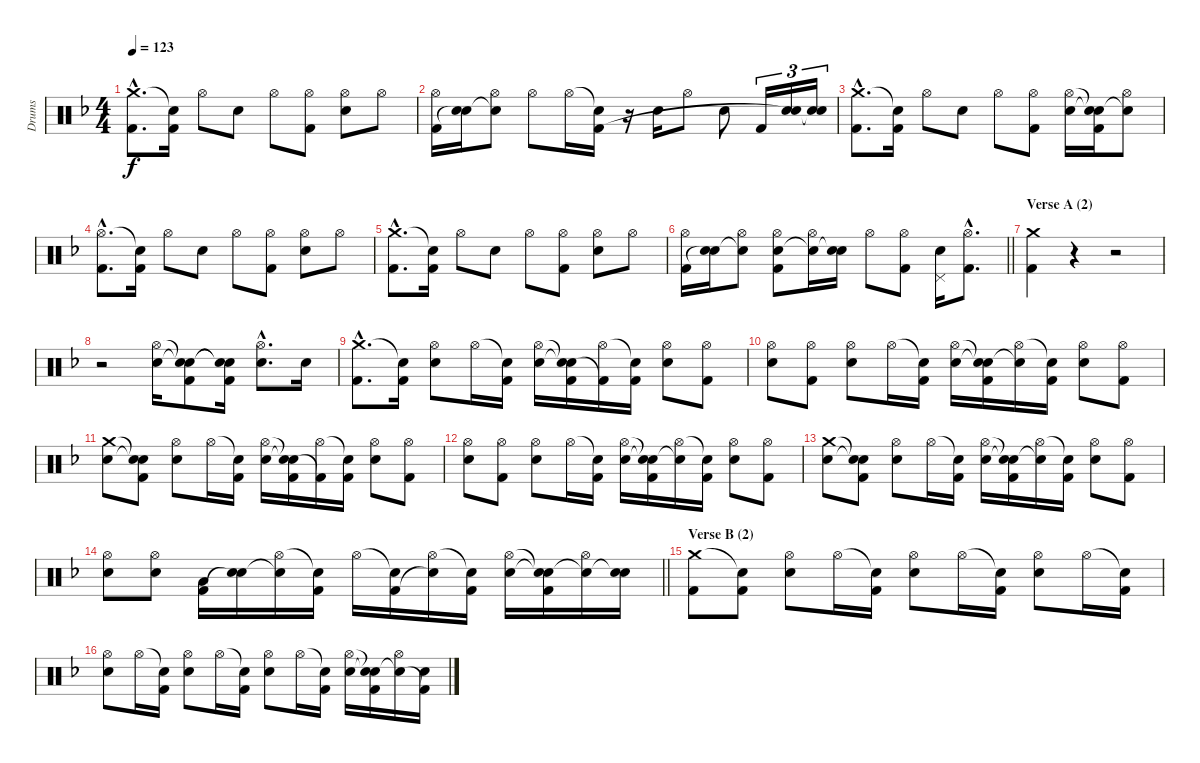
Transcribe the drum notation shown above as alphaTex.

\track ("Drums" "Drums") {instrument percussion}
\staff {score}
\articulation defaults
\ts (4 4)
\tempo 123
\clef neutral
\ks dminor
("Crash medium (hit)"{hac} "Kick (hit) 2"{hac}).8{d dy f} ("Snare (hit)"{t} "Kick (hit) 2").16 "Hi-Hat (open)".8 "Electric Snare (hit)".8 "Hi-Hat (open)".8 ("Hi-Hat (open)" "Kick (hit) 2").8 ("Hi-Hat (open)" "Electric Snare (hit)").8 "Hi-Hat (open)".8 |
("Hi-Hat (open)" "Kick (hit) 2").16 ("Electric Snare (hit)" "Snare (hit)"{t}).16 ("Hi-Hat (open)" "Snare (hit)"{t}).8 "Hi-Hat (open)".8 "Hi-Hat (open)".16 ("Snare (hit)"{t} "Kick (hit) 2").16 r.16 "Electric Snare (hit)".16 "Hi-Hat (open)".8 "Electric Snare (hit)".8 "Kick (hit) 2".16{tu (3 2)} ("Electric Snare (hit)" "Snare (hit)"{t}).16{tu (3 2)} ("Electric Snare (hit)" "Snare (hit)"{t}).16{tu (3 2)} |
("Crash medium (hit)"{hac} "Kick (hit) 2"{hac}).8{d} ("Snare (hit)"{t} "Kick (hit) 2").16 "Hi-Hat (open)".8 "Electric Snare (hit)".8 "Hi-Hat (open)".8 ("Hi-Hat (open)" "Kick (hit) 2").8 ("Hi-Hat (open)" "Electric Snare (hit)").16 ("Snare (hit)"{t} "Snare (hit)"{t} "Kick (hit) 2").16 ("Hi-Hat (open)" "Snare (hit)"{t}).8 |
("Hi-Hat (open)"{hac} "Kick (hit) 2"{hac}).8{d} ("Snare (hit)"{t} "Kick (hit) 2").16 "Hi-Hat (open)".8 "Electric Snare (hit)".8 "Hi-Hat (open)".8 ("Hi-Hat (open)" "Kick (hit) 2").8 ("Hi-Hat (open)" "Electric Snare (hit)").8 "Hi-Hat (open)".8 |
("Crash medium (hit)"{hac} "Kick (hit) 2"{hac}).8{d} ("Snare (hit)"{t} "Kick (hit) 2").16 "Hi-Hat (open)".8 "Electric Snare (hit)".8 "Hi-Hat (open)".8 ("Hi-Hat (open)" "Kick (hit) 2").8 ("Hi-Hat (open)" "Electric Snare (hit)").8 "Hi-Hat (open)".8 |
\barLineRight lightlight
("Hi-Hat (open)" "Kick (hit) 2").16 ("Electric Snare (hit)" "Snare (hit)"{t}).16 ("Hi-Hat (open)" "Snare (hit)"{t}).8 ("Hi-Hat (open)" "Electric Snare (hit)" "Kick (hit) 2").8 ("Hi-Hat (open)" "Snare (hit)"{t}).16 ("Electric Snare (hit)" "Snare (hit)"{t}).16 "Hi-Hat (open)".8 ("Hi-Hat (open)" "Kick (hit) 2").8 ("Pedal Hi-Hat (hit)" "Electric Snare (hit)").16 ("Hi-Hat (open)"{hac} "Kick (hit) 2"{hac}).8{d} |
\section ("" "Verse A (2)")
("Crash medium (hit)" "Kick (hit) 2").4 r.4 r.2 |
r.2 ("Hi-Hat (open)" "Electric Snare (hit)").16 ("Snare (hit)"{t} "Snare (hit)"{t} "Kick (hit) 2").8 ("Snare (hit)"{t} "Snare (hit)"{t} "Kick (hit) 2").16 ("Hi-Hat (open)"{hac} "Electric Snare (hit)"{hac}).8{d} "Electric Snare (hit)".16 |
("Crash medium (hit)"{hac} "Kick (hit) 2"{hac}).8{d} ("Snare (hit)"{t} "Kick (hit) 2").16 ("Hi-Hat (open)" "Electric Snare (hit)").8 "Hi-Hat (open)".16 ("Snare (hit)"{t} "Kick (hit) 2").16 ("Hi-Hat (open)" "Electric Snare (hit)").16 ("Snare (hit)"{t} "Snare (hit)"{t} "Kick (hit) 2").16 ("Hi-Hat (open)" "Kick (hit) 2"{t}).16 ("Snare (hit)"{t} "Kick (hit) 2").16 ("Hi-Hat (open)" "Electric Snare (hit)").8 ("Hi-Hat (open)" "Kick (hit) 2").8 |
("Hi-Hat (open)" "Electric Snare (hit)").8 ("Hi-Hat (open)" "Kick (hit) 2").8 ("Hi-Hat (open)" "Electric Snare (hit)").8 "Hi-Hat (open)".16 ("Snare (hit)"{t} "Kick (hit) 2").16 ("Hi-Hat (open)" "Electric Snare (hit)").16 ("Snare (hit)"{t} "Snare (hit)"{t} "Kick (hit) 2").16 ("Hi-Hat (open)" "Snare (hit)"{t}).16 ("Snare (hit)"{t} "Kick (hit) 2").16 ("Hi-Hat (open)" "Electric Snare (hit)").8 ("Hi-Hat (open)" "Kick (hit) 2").8 |
("Crash medium (hit)" "Electric Snare (hit)").8 ("Snare (hit)"{t} "Snare (hit)"{t} "Kick (hit) 2").8 ("Hi-Hat (open)" "Electric Snare (hit)").8 "Hi-Hat (open)".16 ("Snare (hit)"{t} "Kick (hit) 2").16 ("Hi-Hat (open)" "Electric Snare (hit)").16 ("Snare (hit)"{t} "Snare (hit)"{t} "Kick (hit) 2").16 ("Hi-Hat (open)" "Kick (hit) 2"{t}).16 ("Snare (hit)"{t} "Kick (hit) 2").16 ("Hi-Hat (open)" "Electric Snare (hit)").8 ("Hi-Hat (open)" "Kick (hit) 2").8 |
("Hi-Hat (open)" "Electric Snare (hit)").8 ("Hi-Hat (open)" "Kick (hit) 2").8 ("Hi-Hat (open)" "Electric Snare (hit)").8 "Hi-Hat (open)".16 ("Snare (hit)"{t} "Kick (hit) 2").16 ("Hi-Hat (open)" "Electric Snare (hit)").16 ("Snare (hit)"{t} "Snare (hit)"{t} "Kick (hit) 2").16 ("Hi-Hat (open)" "Snare (hit)"{t}).16 ("Snare (hit)"{t} "Kick (hit) 2").16 ("Hi-Hat (open)" "Electric Snare (hit)").8 ("Hi-Hat (open)" "Kick (hit) 2").8 |
("Crash medium (hit)" "Electric Snare (hit)").8 ("Snare (hit)"{t} "Snare (hit)"{t} "Kick (hit) 2").8 ("Hi-Hat (open)" "Electric Snare (hit)").8 "Hi-Hat (open)".16 ("Snare (hit)"{t} "Kick (hit) 2").16 ("Hi-Hat (open)" "Electric Snare (hit)").16 ("Snare (hit)"{t} "Snare (hit)"{t} "Kick (hit) 2").16 ("Hi-Hat (open)" "Snare (hit)"{t}).16 ("Snare (hit)"{t} "Kick (hit) 2").16 ("Hi-Hat (open)" "Electric Snare (hit)").8 ("Hi-Hat (open)" "Kick (hit) 2").8 |
\barLineRight lightlight
("Hi-Hat (open)" "Electric Snare (hit)").8 ("Hi-Hat (open)" "Electric Snare (hit)").8 ("Low Floor Tom (hit)" "Kick (hit) 2").16 ("Electric Snare (hit)" "Snare (hit)"{t}).16 ("Hi-Hat (open)" "Snare (hit)"{t}).16 ("Snare (hit)"{t} "Kick (hit) 2").16 "Hi-Hat (open)".16 ("Snare (hit)"{t} "Kick (hit) 2").16 ("Hi-Hat (open)" "Snare (hit)"{t}).16 ("Snare (hit)"{t} "Kick (hit) 2").16 ("Hi-Hat (open)" "Electric Snare (hit)").16 ("Snare (hit)"{t} "Snare (hit)"{t} "Kick (hit) 2").16 ("Hi-Hat (open)" "Snare (hit)"{t}).16 ("Electric Snare (hit)" "Snare (hit)"{t}).16 |
\section ("" "Verse B (2)")
("Crash medium (hit)" "Kick (hit) 2").8 ("Snare (hit)"{t} "Kick (hit) 2").8 ("Hi-Hat (open)" "Electric Snare (hit)").8 "Hi-Hat (open)".16 ("Snare (hit)"{t} "Kick (hit) 2").16 ("Hi-Hat (open)" "Electric Snare (hit)").8 "Hi-Hat (open)".16 ("Snare (hit)"{t} "Kick (hit) 2").16 ("Hi-Hat (open)" "Electric Snare (hit)").8 "Hi-Hat (open)".16 ("Snare (hit)"{t} "Kick (hit) 2").16 |
("Hi-Hat (open)" "Electric Snare (hit)").8 "Hi-Hat (open)".16 ("Snare (hit)"{t} "Kick (hit) 2").16 ("Hi-Hat (open)" "Electric Snare (hit)").8 "Hi-Hat (open)".16 ("Snare (hit)"{t} "Kick (hit) 2").16 ("Hi-Hat (open)" "Electric Snare (hit)").8 "Hi-Hat (open)".16 ("Snare (hit)"{t} "Kick (hit) 2").16 ("Hi-Hat (open)" "Electric Snare (hit)").16 ("Snare (hit)"{t} "Snare (hit)"{t} "Kick (hit) 2").16 ("Hi-Hat (open)" "Snare (hit)"{t}).16 ("Electric Snare (hit)" "Kick (hit) 2"{t}).16
